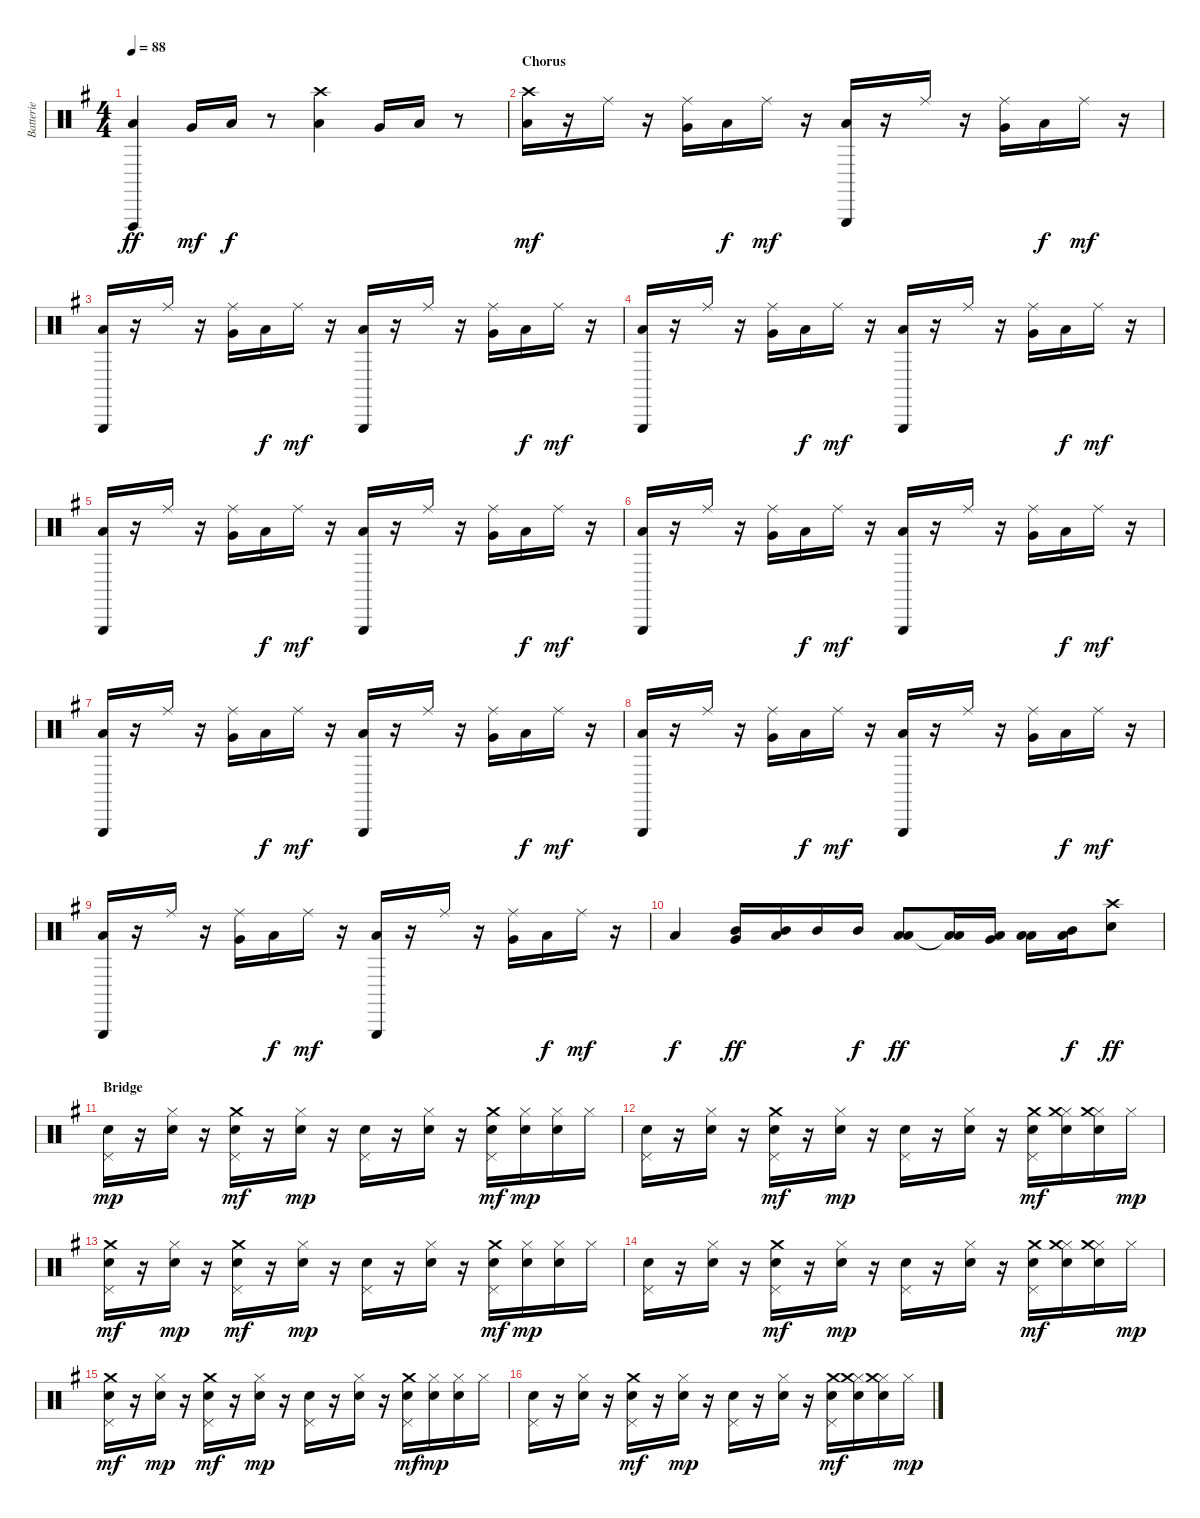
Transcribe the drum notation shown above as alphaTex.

\track ("Batterie" "Batterie") {instrument percussion}
\staff {score}
\articulation defaults
\ts (4 4)
\tempo 88
\clef neutral
\ks g
("Low Floor Tom (hit)" "Vibraslap (hit)").4{dy ff} "Very Low Tom (hit)".16{dy mf} "Low Floor Tom (hit)".16{dy f} r.8 ("Low Floor Tom (hit)" "Crash high (hit)").4 "Very Low Tom (hit)".16 "Low Floor Tom (hit)".16 r.8 |
\section ("" "Chorus")
("Low Floor Tom (hit)" "Crash high (hit)").16{dy mf} r.16 "Ride (middle)".16 r.16 ("Very Low Tom (hit)" "Ride (middle)").16 "Low Floor Tom (hit)".16{dy f} "Ride (middle)".16{dy mf} r.16 ("Low Floor Tom (hit)" "Triangle (hit)").16 r.16 "Ride (middle)".16 r.16 ("Very Low Tom (hit)" "Ride (middle)").16 "Low Floor Tom (hit)".16{dy f} "Ride (middle)".16{dy mf} r.16 |
("Low Floor Tom (hit)" "Triangle (hit)").16 r.16 "Ride (middle)".16 r.16 ("Very Low Tom (hit)" "Ride (middle)").16 "Low Floor Tom (hit)".16{dy f} "Ride (middle)".16{dy mf} r.16 ("Low Floor Tom (hit)" "Triangle (hit)").16 r.16 "Ride (middle)".16 r.16 ("Very Low Tom (hit)" "Ride (middle)").16 "Low Floor Tom (hit)".16{dy f} "Ride (middle)".16{dy mf} r.16 |
("Low Floor Tom (hit)" "Triangle (hit)").16 r.16 "Ride (middle)".16 r.16 ("Very Low Tom (hit)" "Ride (middle)").16 "Low Floor Tom (hit)".16{dy f} "Ride (middle)".16{dy mf} r.16 ("Low Floor Tom (hit)" "Triangle (hit)").16 r.16 "Ride (middle)".16 r.16 ("Very Low Tom (hit)" "Ride (middle)").16 "Low Floor Tom (hit)".16{dy f} "Ride (middle)".16{dy mf} r.16 |
("Low Floor Tom (hit)" "Triangle (hit)").16 r.16 "Ride (middle)".16 r.16 ("Very Low Tom (hit)" "Ride (middle)").16 "Low Floor Tom (hit)".16{dy f} "Ride (middle)".16{dy mf} r.16 ("Low Floor Tom (hit)" "Triangle (hit)").16 r.16 "Ride (middle)".16 r.16 ("Very Low Tom (hit)" "Ride (middle)").16 "Low Floor Tom (hit)".16{dy f} "Ride (middle)".16{dy mf} r.16 |
("Low Floor Tom (hit)" "Triangle (hit)").16 r.16 "Ride (middle)".16 r.16 ("Very Low Tom (hit)" "Ride (middle)").16 "Low Floor Tom (hit)".16{dy f} "Ride (middle)".16{dy mf} r.16 ("Low Floor Tom (hit)" "Triangle (hit)").16 r.16 "Ride (middle)".16 r.16 ("Very Low Tom (hit)" "Ride (middle)").16 "Low Floor Tom (hit)".16{dy f} "Ride (middle)".16{dy mf} r.16 |
("Low Floor Tom (hit)" "Triangle (hit)").16 r.16 "Ride (middle)".16 r.16 ("Very Low Tom (hit)" "Ride (middle)").16 "Low Floor Tom (hit)".16{dy f} "Ride (middle)".16{dy mf} r.16 ("Low Floor Tom (hit)" "Triangle (hit)").16 r.16 "Ride (middle)".16 r.16 ("Very Low Tom (hit)" "Ride (middle)").16 "Low Floor Tom (hit)".16{dy f} "Ride (middle)".16{dy mf} r.16 |
("Low Floor Tom (hit)" "Triangle (hit)").16 r.16 "Ride (middle)".16 r.16 ("Very Low Tom (hit)" "Ride (middle)").16 "Low Floor Tom (hit)".16{dy f} "Ride (middle)".16{dy mf} r.16 ("Low Floor Tom (hit)" "Triangle (hit)").16 r.16 "Ride (middle)".16 r.16 ("Very Low Tom (hit)" "Ride (middle)").16 "Low Floor Tom (hit)".16{dy f} "Ride (middle)".16{dy mf} r.16 |
("Low Floor Tom (hit)" "Triangle (hit)").16 r.16 "Ride (middle)".16 r.16 ("Very Low Tom (hit)" "Ride (middle)").16 "Low Floor Tom (hit)".16{dy f} "Ride (middle)".16{dy mf} r.16 ("Low Floor Tom (hit)" "Triangle (hit)").16 r.16 "Ride (middle)".16 r.16 ("Very Low Tom (hit)" "Ride (middle)").16 "Low Floor Tom (hit)".16{dy f} "Ride (middle)".16{dy mf} r.16 |
"Low Floor Tom (hit)".4{dy f} ("Very Low Tom (hit)" "Mid Tom (hit)").16{dy ff} ("Low Floor Tom (hit)" "Mid Tom (hit)").16 "Mid Tom (hit)".16 "Mid Tom (hit)".16{dy f} ("Low Floor Tom (hit)" "Low Tom (hit)").8{dy ff} ("Low Floor Tom (hit)"{t} "Low Tom (hit)").16 ("Very Low Tom (hit)" "Low Tom (hit)").16 ("Low Floor Tom (hit)" "Low Tom (hit)").16 ("Mid Tom (hit)" "Low Tom (hit)").16{dy f} ("Snare (hit) 2" "Crash high (hit)").8{dy ff} |
\section ("" "Bridge")
("Electric Snare (hit)" "Pedal Hi-Hat (hit)").16{dy mp} r.16 ("Electric Snare (hit)" "Hi-Hat (closed)").16 r.16 ("Electric Snare (hit)" "Pedal Hi-Hat (hit)" "Crash medium (hit)").16{dy mf} r.16 ("Electric Snare (hit)" "Hi-Hat (closed)").16{dy mp} r.16 ("Electric Snare (hit)" "Pedal Hi-Hat (hit)").16 r.16 ("Electric Snare (hit)" "Hi-Hat (closed)").16 r.16 ("Electric Snare (hit)" "Pedal Hi-Hat (hit)" "Crash medium (hit)").16{dy mf} ("Electric Snare (hit)" "Hi-Hat (closed)").16{dy mp} ("Electric Snare (hit)" "Hi-Hat (closed)").16 "Hi-Hat (closed)".16 |
("Electric Snare (hit)" "Pedal Hi-Hat (hit)").16 r.16 ("Electric Snare (hit)" "Hi-Hat (closed)").16 r.16 ("Electric Snare (hit)" "Pedal Hi-Hat (hit)" "Crash medium (hit)").16{dy mf} r.16 ("Electric Snare (hit)" "Hi-Hat (closed)").16{dy mp} r.16 ("Electric Snare (hit)" "Pedal Hi-Hat (hit)").16 r.16 ("Electric Snare (hit)" "Hi-Hat (closed)").16 r.16 ("Electric Snare (hit)" "Pedal Hi-Hat (hit)" "Crash medium (hit)").16{dy mf} ("Electric Snare (hit)" "Hi-Hat (closed)" "Crash medium (hit)").16 ("Electric Snare (hit)" "Hi-Hat (closed)" "Crash medium (hit)").16 "Hi-Hat (closed)".16{dy mp} |
("Electric Snare (hit)" "Pedal Hi-Hat (hit)" "Crash medium (hit)").16{dy mf} r.16 ("Electric Snare (hit)" "Hi-Hat (closed)").16{dy mp} r.16 ("Electric Snare (hit)" "Pedal Hi-Hat (hit)" "Crash medium (hit)").16{dy mf} r.16 ("Electric Snare (hit)" "Hi-Hat (closed)").16{dy mp} r.16 ("Electric Snare (hit)" "Pedal Hi-Hat (hit)").16 r.16 ("Electric Snare (hit)" "Hi-Hat (closed)").16 r.16 ("Electric Snare (hit)" "Pedal Hi-Hat (hit)" "Crash medium (hit)").16{dy mf} ("Electric Snare (hit)" "Hi-Hat (closed)").16{dy mp} ("Electric Snare (hit)" "Hi-Hat (closed)").16 "Hi-Hat (closed)".16 |
("Electric Snare (hit)" "Pedal Hi-Hat (hit)").16 r.16 ("Electric Snare (hit)" "Hi-Hat (closed)").16 r.16 ("Electric Snare (hit)" "Pedal Hi-Hat (hit)" "Crash medium (hit)").16{dy mf} r.16 ("Electric Snare (hit)" "Hi-Hat (closed)").16{dy mp} r.16 ("Electric Snare (hit)" "Pedal Hi-Hat (hit)").16 r.16 ("Electric Snare (hit)" "Hi-Hat (closed)").16 r.16 ("Electric Snare (hit)" "Pedal Hi-Hat (hit)" "Crash medium (hit)").16{dy mf} ("Electric Snare (hit)" "Hi-Hat (closed)" "Crash medium (hit)").16 ("Electric Snare (hit)" "Hi-Hat (closed)" "Crash medium (hit)").16 "Hi-Hat (closed)".16{dy mp} |
("Electric Snare (hit)" "Pedal Hi-Hat (hit)" "Crash medium (hit)").16{dy mf} r.16 ("Electric Snare (hit)" "Hi-Hat (closed)").16{dy mp} r.16 ("Electric Snare (hit)" "Pedal Hi-Hat (hit)" "Crash medium (hit)").16{dy mf} r.16 ("Electric Snare (hit)" "Hi-Hat (closed)").16{dy mp} r.16 ("Electric Snare (hit)" "Pedal Hi-Hat (hit)").16 r.16 ("Electric Snare (hit)" "Hi-Hat (closed)").16 r.16 ("Electric Snare (hit)" "Pedal Hi-Hat (hit)" "Crash medium (hit)").16{dy mf} ("Electric Snare (hit)" "Hi-Hat (closed)").16{dy mp} ("Electric Snare (hit)" "Hi-Hat (closed)").16 "Hi-Hat (closed)".16 |
("Electric Snare (hit)" "Pedal Hi-Hat (hit)").16 r.16 ("Electric Snare (hit)" "Hi-Hat (closed)").16 r.16 ("Electric Snare (hit)" "Pedal Hi-Hat (hit)" "Crash medium (hit)").16{dy mf} r.16 ("Electric Snare (hit)" "Hi-Hat (closed)").16{dy mp} r.16 ("Electric Snare (hit)" "Pedal Hi-Hat (hit)").16 r.16 ("Electric Snare (hit)" "Hi-Hat (closed)").16 r.16 ("Electric Snare (hit)" "Pedal Hi-Hat (hit)" "Crash medium (hit)").16{dy mf} ("Electric Snare (hit)" "Hi-Hat (closed)" "Crash medium (hit)").16 ("Electric Snare (hit)" "Hi-Hat (closed)" "Crash medium (hit)").16 "Hi-Hat (closed)".16{dy mp}
